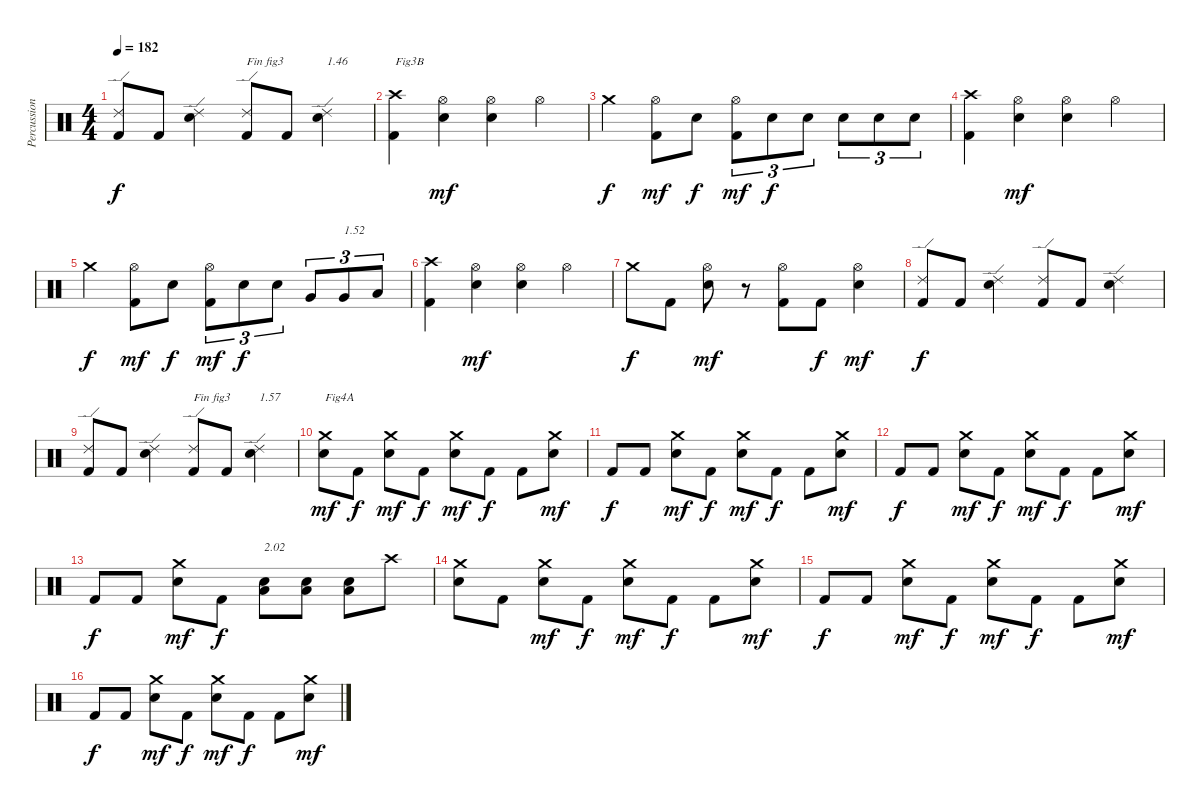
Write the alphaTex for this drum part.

\track ("Percussions" "Percussion") {instrument percussion}
\staff {score}
\articulation defaults
\ts (4 4)
\tempo 182
\clef neutral
\ks c
("Kick (hit) 2" "Ride (edge) 2").8{dy f} "Kick (hit) 2".8 ("Electric Snare (hit)" "Ride (edge) 2").4 ("Kick (hit) 2" "Ride (edge) 2").8{txt "Fin fig3"} "Kick (hit) 2".8 ("Electric Snare (hit)" "Ride (edge) 2").4{txt "1.46"} |
("Kick (hit) 2" "Crash high (hit)").4{txt "Fig3B"} ("Electric Snare (hit)" "Hi-Hat (open)").4{dy mf} ("Electric Snare (hit)" "Hi-Hat (open)").4 "Hi-Hat (open)".4 |
"Crash medium (hit)".4{dy f} ("Kick (hit) 2" "Hi-Hat (open)").8{dy mf} "Electric Snare (hit)".8{dy f} ("Kick (hit) 2" "Hi-Hat (open)").8{tu (3 2) dy mf} "Electric Snare (hit)".8{tu (3 2) dy f} "Electric Snare (hit)".8{tu (3 2)} "Electric Snare (hit)".8{tu (3 2)} "Electric Snare (hit)".8{tu (3 2)} "Electric Snare (hit)".8{tu (3 2)} |
("Kick (hit) 2" "Crash high (hit)").4 ("Electric Snare (hit)" "Hi-Hat (open)").4{dy mf} ("Electric Snare (hit)" "Hi-Hat (open)").4 "Hi-Hat (open)".4 |
"Crash medium (hit)".4{dy f} ("Kick (hit) 2" "Hi-Hat (open)").8{dy mf} "Electric Snare (hit)".8{dy f} ("Kick (hit) 2" "Hi-Hat (open)").8{tu (3 2) dy mf} "Electric Snare (hit)".8{tu (3 2) dy f} "Electric Snare (hit)".8{tu (3 2)} "Very Low Tom (hit)".8{tu (3 2)} "Very Low Tom (hit)".8{tu (3 2) txt "1.52"} "Low Floor Tom (hit)".8{tu (3 2)} |
("Kick (hit) 2" "Crash high (hit)").4 ("Electric Snare (hit)" "Hi-Hat (open)").4{dy mf} ("Electric Snare (hit)" "Hi-Hat (open)").4 "Hi-Hat (open)".4 |
"Crash medium (hit)".8{dy f} "Kick (hit) 2".8 ("Electric Snare (hit)" "Hi-Hat (open)").8{dy mf} r.8 ("Kick (hit) 2" "Hi-Hat (open)").8 "Kick (hit) 2".8{dy f} ("Electric Snare (hit)" "Hi-Hat (open)").4{dy mf} |
("Kick (hit) 2" "Ride (edge) 2").8{dy f} "Kick (hit) 2".8 ("Electric Snare (hit)" "Ride (edge) 2").4 ("Kick (hit) 2" "Ride (edge) 2").8 "Kick (hit) 2".8 ("Electric Snare (hit)" "Ride (edge) 2").4 |
("Kick (hit) 2" "Ride (edge) 2").8 "Kick (hit) 2".8 ("Electric Snare (hit)" "Ride (edge) 2").4 ("Kick (hit) 2" "Ride (edge) 2").8{txt "Fin fig3"} "Kick (hit) 2".8 ("Electric Snare (hit)" "Ride (edge) 2").4{txt "1.57"} |
("Electric Snare (hit)" "Crash medium (hit)").8{txt "Fig4A" dy mf} "Kick (hit) 2".8{dy f} ("Electric Snare (hit)" "Crash medium (hit)").8{dy mf} "Kick (hit) 2".8{dy f} ("Electric Snare (hit)" "Crash medium (hit)").8{dy mf} "Kick (hit) 2".8{dy f} "Kick (hit) 2".8 ("Electric Snare (hit)" "Crash medium (hit)").8{dy mf} |
"Kick (hit) 2".8{dy f} "Kick (hit) 2".8 ("Electric Snare (hit)" "Crash medium (hit)").8{dy mf} "Kick (hit) 2".8{dy f} ("Electric Snare (hit)" "Crash medium (hit)").8{dy mf} "Kick (hit) 2".8{dy f} "Kick (hit) 2".8 ("Electric Snare (hit)" "Crash medium (hit)").8{dy mf} |
"Kick (hit) 2".8{dy f} "Kick (hit) 2".8 ("Electric Snare (hit)" "Crash medium (hit)").8{dy mf} "Kick (hit) 2".8{dy f} ("Electric Snare (hit)" "Crash medium (hit)").8{dy mf} "Kick (hit) 2".8{dy f} "Kick (hit) 2".8 ("Electric Snare (hit)" "Crash medium (hit)").8{dy mf} |
"Kick (hit) 2".8{dy f} "Kick (hit) 2".8 ("Electric Snare (hit)" "Crash medium (hit)").8{dy mf} "Kick (hit) 2".8{dy f} ("Low Floor Tom (hit)" "Electric Snare (hit)").8{txt "2.02"} ("Low Floor Tom (hit)" "Electric Snare (hit)").8 ("Low Floor Tom (hit)" "Electric Snare (hit)").8 "Crash high (hit)".8 |
("Electric Snare (hit)" "Crash medium (hit)").8 "Kick (hit) 2".8 ("Electric Snare (hit)" "Crash medium (hit)").8{dy mf} "Kick (hit) 2".8{dy f} ("Electric Snare (hit)" "Crash medium (hit)").8{dy mf} "Kick (hit) 2".8{dy f} "Kick (hit) 2".8 ("Electric Snare (hit)" "Crash medium (hit)").8{dy mf} |
"Kick (hit) 2".8{dy f} "Kick (hit) 2".8 ("Electric Snare (hit)" "Crash medium (hit)").8{dy mf} "Kick (hit) 2".8{dy f} ("Electric Snare (hit)" "Crash medium (hit)").8{dy mf} "Kick (hit) 2".8{dy f} "Kick (hit) 2".8 ("Electric Snare (hit)" "Crash medium (hit)").8{dy mf} |
"Kick (hit) 2".8{dy f} "Kick (hit) 2".8 ("Electric Snare (hit)" "Crash medium (hit)").8{dy mf} "Kick (hit) 2".8{dy f} ("Electric Snare (hit)" "Crash medium (hit)").8{dy mf} "Kick (hit) 2".8{dy f} "Kick (hit) 2".8 ("Electric Snare (hit)" "Crash medium (hit)").8{dy mf}
